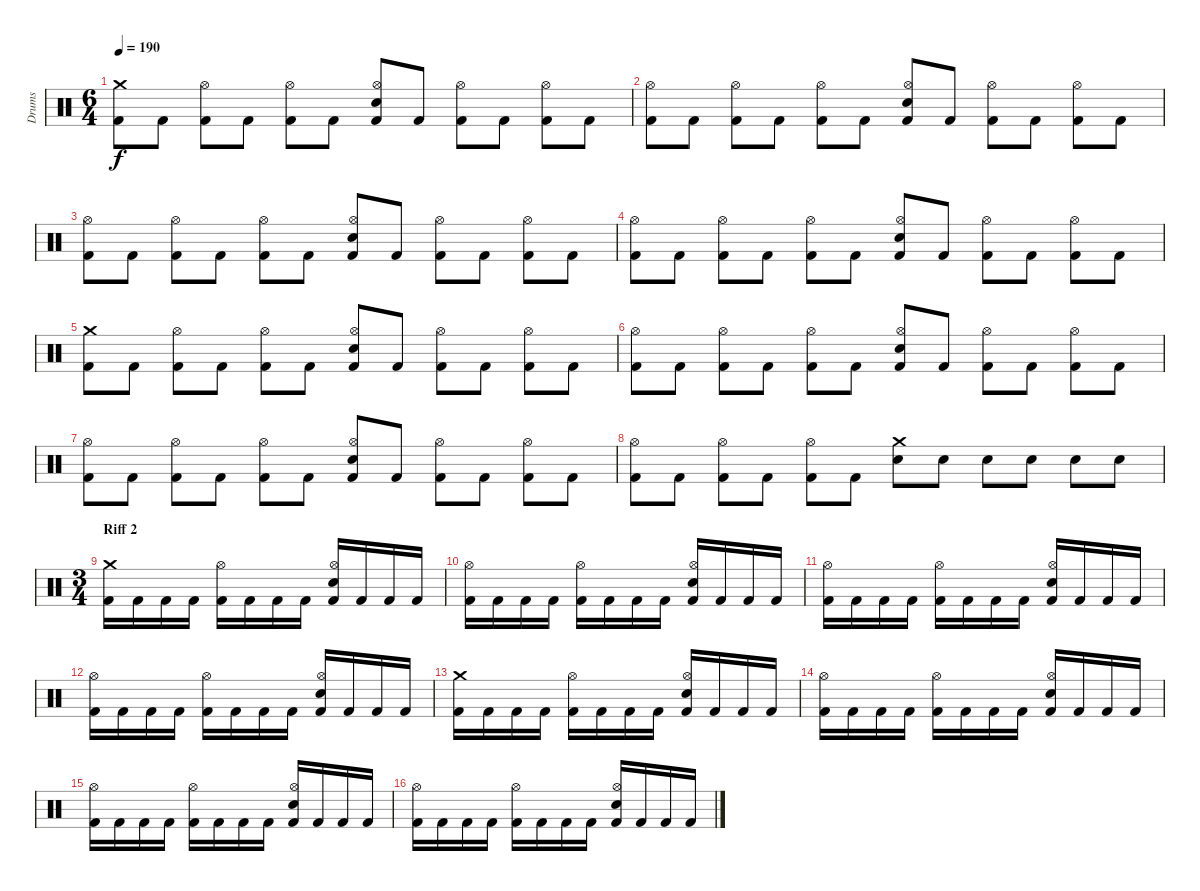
\track ("Drums" "Drums") {instrument percussion}
\staff {score}
\articulation defaults
\ts (6 4)
\tempo 190
\clef neutral
\ks c
("Crash medium (hit)" "Kick (hit) 2").8{dy f volume 13} "Kick (hit) 2".8 ("Hi-Hat (open)" "Kick (hit) 2").8 "Kick (hit) 2".8 ("Hi-Hat (open)" "Kick (hit) 2").8 "Kick (hit) 2".8 ("Hi-Hat (open)" "Electric Snare (hit)" "Kick (hit) 2").8 "Kick (hit) 2".8 ("Hi-Hat (open)" "Kick (hit) 2").8 "Kick (hit) 2".8 ("Hi-Hat (open)" "Kick (hit) 2").8 "Kick (hit) 2".8 |
("Hi-Hat (open)" "Kick (hit) 2").8 "Kick (hit) 2".8 ("Hi-Hat (open)" "Kick (hit) 2").8 "Kick (hit) 2".8 ("Hi-Hat (open)" "Kick (hit) 2").8 "Kick (hit) 2".8 ("Hi-Hat (open)" "Electric Snare (hit)" "Kick (hit) 2").8 "Kick (hit) 2".8 ("Hi-Hat (open)" "Kick (hit) 2").8 "Kick (hit) 2".8 ("Hi-Hat (open)" "Kick (hit) 2").8 "Kick (hit) 2".8 |
("Hi-Hat (open)" "Kick (hit) 2").8 "Kick (hit) 2".8 ("Hi-Hat (open)" "Kick (hit) 2").8 "Kick (hit) 2".8 ("Hi-Hat (open)" "Kick (hit) 2").8 "Kick (hit) 2".8 ("Hi-Hat (open)" "Electric Snare (hit)" "Kick (hit) 2").8 "Kick (hit) 2".8 ("Hi-Hat (open)" "Kick (hit) 2").8 "Kick (hit) 2".8 ("Hi-Hat (open)" "Kick (hit) 2").8 "Kick (hit) 2".8 |
("Hi-Hat (open)" "Kick (hit) 2").8 "Kick (hit) 2".8 ("Hi-Hat (open)" "Kick (hit) 2").8 "Kick (hit) 2".8 ("Hi-Hat (open)" "Kick (hit) 2").8 "Kick (hit) 2".8 ("Hi-Hat (open)" "Electric Snare (hit)" "Kick (hit) 2").8 "Kick (hit) 2".8 ("Hi-Hat (open)" "Kick (hit) 2").8 "Kick (hit) 2".8 ("Hi-Hat (open)" "Kick (hit) 2").8 "Kick (hit) 2".8 |
("Crash medium (hit)" "Kick (hit) 2").8 "Kick (hit) 2".8 ("Hi-Hat (open)" "Kick (hit) 2").8 "Kick (hit) 2".8 ("Hi-Hat (open)" "Kick (hit) 2").8 "Kick (hit) 2".8 ("Hi-Hat (open)" "Electric Snare (hit)" "Kick (hit) 2").8 "Kick (hit) 2".8 ("Hi-Hat (open)" "Kick (hit) 2").8 "Kick (hit) 2".8 ("Hi-Hat (open)" "Kick (hit) 2").8 "Kick (hit) 2".8 |
("Hi-Hat (open)" "Kick (hit) 2").8 "Kick (hit) 2".8 ("Hi-Hat (open)" "Kick (hit) 2").8 "Kick (hit) 2".8 ("Hi-Hat (open)" "Kick (hit) 2").8 "Kick (hit) 2".8 ("Hi-Hat (open)" "Electric Snare (hit)" "Kick (hit) 2").8 "Kick (hit) 2".8 ("Hi-Hat (open)" "Kick (hit) 2").8 "Kick (hit) 2".8 ("Hi-Hat (open)" "Kick (hit) 2").8 "Kick (hit) 2".8 |
("Hi-Hat (open)" "Kick (hit) 2").8 "Kick (hit) 2".8 ("Hi-Hat (open)" "Kick (hit) 2").8 "Kick (hit) 2".8 ("Hi-Hat (open)" "Kick (hit) 2").8 "Kick (hit) 2".8 ("Hi-Hat (open)" "Electric Snare (hit)" "Kick (hit) 2").8 "Kick (hit) 2".8 ("Hi-Hat (open)" "Kick (hit) 2").8 "Kick (hit) 2".8 ("Hi-Hat (open)" "Kick (hit) 2").8 "Kick (hit) 2".8 |
("Hi-Hat (open)" "Kick (hit) 2").8 "Kick (hit) 2".8 ("Hi-Hat (open)" "Kick (hit) 2").8 "Kick (hit) 2".8 ("Hi-Hat (open)" "Kick (hit) 2").8 "Kick (hit) 2".8 ("Crash medium (hit)" "Electric Snare (hit)").8 "Electric Snare (hit)".8 "Electric Snare (hit)".8 "Electric Snare (hit)".8 "Electric Snare (hit)".8 "Electric Snare (hit)".8 |
\ts (3 4)
\section ("" "Riff 2")
("Crash medium (hit)" "Kick (hit) 2").16 "Kick (hit) 2".16 "Kick (hit) 2".16 "Kick (hit) 2".16 ("Hi-Hat (open)" "Kick (hit) 2").16 "Kick (hit) 2".16 "Kick (hit) 2".16 "Kick (hit) 2".16 ("Hi-Hat (open)" "Electric Snare (hit)" "Kick (hit) 2").16 "Kick (hit) 2".16 "Kick (hit) 2".16 "Kick (hit) 2".16 |
("Hi-Hat (open)" "Kick (hit) 2").16 "Kick (hit) 2".16 "Kick (hit) 2".16 "Kick (hit) 2".16 ("Hi-Hat (open)" "Kick (hit) 2").16 "Kick (hit) 2".16 "Kick (hit) 2".16 "Kick (hit) 2".16 ("Hi-Hat (open)" "Electric Snare (hit)" "Kick (hit) 2").16 "Kick (hit) 2".16 "Kick (hit) 2".16 "Kick (hit) 2".16 |
("Hi-Hat (open)" "Kick (hit) 2").16 "Kick (hit) 2".16 "Kick (hit) 2".16 "Kick (hit) 2".16 ("Hi-Hat (open)" "Kick (hit) 2").16 "Kick (hit) 2".16 "Kick (hit) 2".16 "Kick (hit) 2".16 ("Hi-Hat (open)" "Electric Snare (hit)" "Kick (hit) 2").16 "Kick (hit) 2".16 "Kick (hit) 2".16 "Kick (hit) 2".16 |
("Hi-Hat (open)" "Kick (hit) 2").16 "Kick (hit) 2".16 "Kick (hit) 2".16 "Kick (hit) 2".16 ("Hi-Hat (open)" "Kick (hit) 2").16 "Kick (hit) 2".16 "Kick (hit) 2".16 "Kick (hit) 2".16 ("Hi-Hat (open)" "Electric Snare (hit)" "Kick (hit) 2").16 "Kick (hit) 2".16 "Kick (hit) 2".16 "Kick (hit) 2".16 |
("Crash medium (hit)" "Kick (hit) 2").16 "Kick (hit) 2".16 "Kick (hit) 2".16 "Kick (hit) 2".16 ("Hi-Hat (open)" "Kick (hit) 2").16 "Kick (hit) 2".16 "Kick (hit) 2".16 "Kick (hit) 2".16 ("Hi-Hat (open)" "Electric Snare (hit)" "Kick (hit) 2").16 "Kick (hit) 2".16 "Kick (hit) 2".16 "Kick (hit) 2".16 |
("Hi-Hat (open)" "Kick (hit) 2").16 "Kick (hit) 2".16 "Kick (hit) 2".16 "Kick (hit) 2".16 ("Hi-Hat (open)" "Kick (hit) 2").16 "Kick (hit) 2".16 "Kick (hit) 2".16 "Kick (hit) 2".16 ("Hi-Hat (open)" "Electric Snare (hit)" "Kick (hit) 2").16 "Kick (hit) 2".16 "Kick (hit) 2".16 "Kick (hit) 2".16 |
("Hi-Hat (open)" "Kick (hit) 2").16 "Kick (hit) 2".16 "Kick (hit) 2".16 "Kick (hit) 2".16 ("Hi-Hat (open)" "Kick (hit) 2").16 "Kick (hit) 2".16 "Kick (hit) 2".16 "Kick (hit) 2".16 ("Hi-Hat (open)" "Electric Snare (hit)" "Kick (hit) 2").16 "Kick (hit) 2".16 "Kick (hit) 2".16 "Kick (hit) 2".16 |
("Hi-Hat (open)" "Kick (hit) 2").16 "Kick (hit) 2".16 "Kick (hit) 2".16 "Kick (hit) 2".16 ("Hi-Hat (open)" "Kick (hit) 2").16 "Kick (hit) 2".16 "Kick (hit) 2".16 "Kick (hit) 2".16 ("Hi-Hat (open)" "Electric Snare (hit)" "Kick (hit) 2").16 "Kick (hit) 2".16 "Kick (hit) 2".16 "Kick (hit) 2".16
